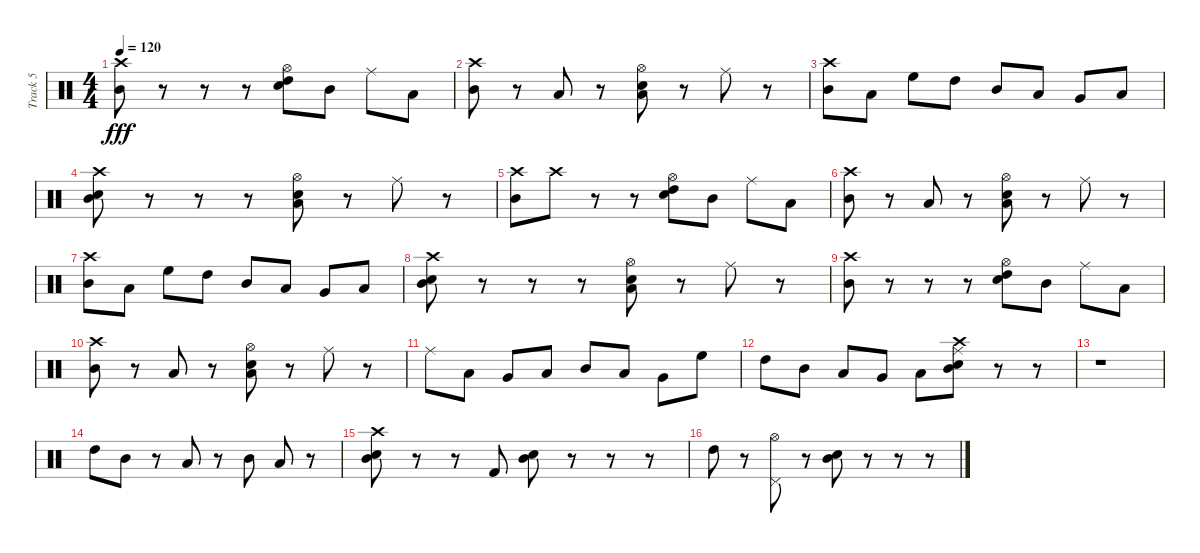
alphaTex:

\track ("Track 5" "Track 5") {instrument percussion}
\staff {score}
\articulation defaults
\ts (4 4)
\tempo 120
\clef neutral
\ks c
("Mid Tom (hit)" "Crash high (hit)").8{dy fff} r.8 r.8 r.8 ("High Tom (hit)" "Electric Snare (hit)" "Hi-Hat (open)").8 "Mid Tom (hit)".8 "Ride (middle)".8 "Low Tom (hit)".8 |
("Mid Tom (hit)" "Crash high (hit)").8 r.8 "Low Tom (hit)".8 r.8 ("Low Tom (hit)" "Electric Snare (hit)" "Hi-Hat (open)").8 r.8 "Ride (middle)".8 r.8 |
("Mid Tom (hit)" "Crash high (hit)").8 "Low Floor Tom (hit)".8 "High Floor Tom (hit)".8 "High Tom (hit)".8 "Mid Tom (hit)".8 "Low Tom (hit)".8 "Very Low Tom (hit)".8 "Low Floor Tom (hit)".8 |
("Snare (hit) 2" "Mid Tom (hit)" "Crash high (hit)").8 r.8 r.8 r.8 ("Low Tom (hit)" "Electric Snare (hit)" "Hi-Hat (open)").8 r.8 "Ride (middle)".8 r.8 |
("Mid Tom (hit)" "Crash high (hit)").8 "Crash high (hit)".8 r.8 r.8 ("High Tom (hit)" "Electric Snare (hit)" "Hi-Hat (open)").8 "Mid Tom (hit)".8 "Ride (middle)".8 "Low Tom (hit)".8 |
("Mid Tom (hit)" "Crash high (hit)").8 r.8 "Low Tom (hit)".8 r.8 ("Low Tom (hit)" "Electric Snare (hit)" "Hi-Hat (open)").8 r.8 "Ride (middle)".8 r.8 |
("Mid Tom (hit)" "Crash high (hit)").8 "Low Floor Tom (hit)".8 "High Floor Tom (hit)".8 "High Tom (hit)".8 "Mid Tom (hit)".8 "Low Tom (hit)".8 "Very Low Tom (hit)".8 "Low Floor Tom (hit)".8 |
("Snare (hit) 2" "Mid Tom (hit)" "Crash high (hit)").8 r.8 r.8 r.8 ("Low Tom (hit)" "Electric Snare (hit)" "Hi-Hat (open)").8 r.8 "Ride (middle)".8 r.8 |
("Mid Tom (hit)" "Crash high (hit)").8 r.8 r.8 r.8 ("High Tom (hit)" "Electric Snare (hit)" "Hi-Hat (open)").8 "Mid Tom (hit)".8 "Ride (middle)".8 "Low Tom (hit)".8 |
("Mid Tom (hit)" "Crash high (hit)").8 r.8 "Low Tom (hit)".8 r.8 ("Low Tom (hit)" "Electric Snare (hit)" "Hi-Hat (open)").8 r.8 "Ride (middle)".8 r.8 |
"Ride (middle)".8 "Low Tom (hit)".8 "Very Low Tom (hit)".8 "Low Floor Tom (hit)".8 "Mid Tom (hit)".8 "Low Tom (hit)".8 "Very Low Tom (hit)".8 "High Floor Tom (hit)".8 |
"High Tom (hit)".8 "Mid Tom (hit)".8 "Low Tom (hit)".8 "Very Low Tom (hit)".8 "Low Floor Tom (hit)".8 ("Electric Snare (hit)" "Crash high (hit)" "Ride (middle)" "Mid Tom (hit)").8 r.8 r.8 |
r.1 |
"High Tom (hit)".8 "Mid Tom (hit)".8 r.8 "Low Tom (hit)".8 r.8 "Mid Tom (hit)".8 "Low Tom (hit)".8 r.8 |
("Crash high (hit)" "Mid Tom (hit)" "Snare (hit) 2").8 r.8 r.8 "Kick (hit) 2".8 ("Mid Tom (hit)" "Snare (hit) 2").8 r.8 r.8 r.8 |
"High Tom (hit)".8 r.8 ("Hi-Hat (open)" "Pedal Hi-Hat (hit)").8 r.8 ("Mid Tom (hit)" "Snare (hit) 2").8 r.8 r.8 r.8
